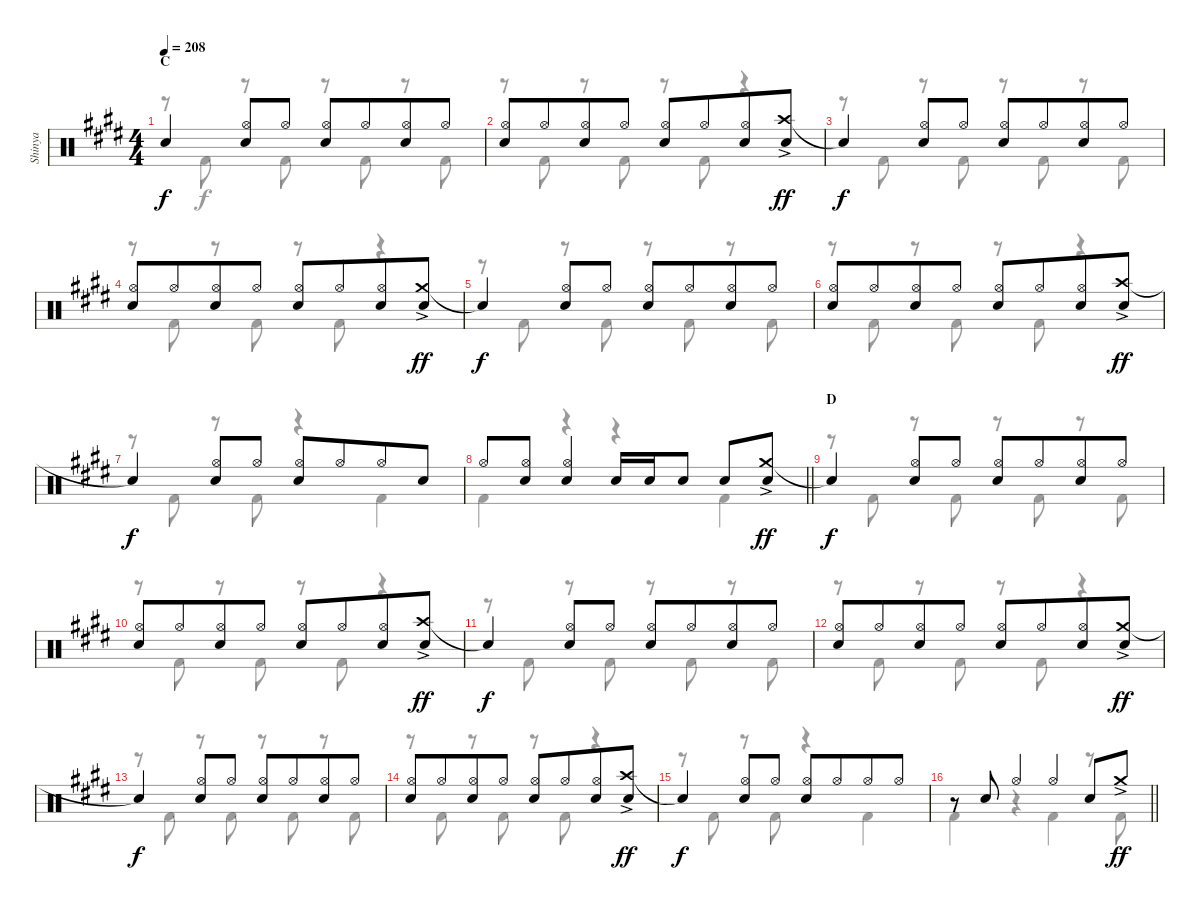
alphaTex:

\track ("Shinya" "Shinya") {instrument percussion}
\staff {score}
\articulation defaults
\voice
\ts (4 4)
\section ("" "C")
\tempo 208
\clef neutral
\ks c#minor "Snare (hit)"{t}.4{dy f}
("Hi-Hat (open)" "Snare (hit) 2").8 "Hi-Hat (open)".8 ("Hi-Hat (open)" "Snare (hit) 2").8 "Hi-Hat (open)".8{beam merge} ("Hi-Hat (open)" "Snare (hit) 2").8 "Hi-Hat (open)".8 |
("Hi-Hat (open)" "Snare (hit) 2").8 "Hi-Hat (open)".8{beam merge} ("Hi-Hat (open)" "Snare (hit) 2").8 "Hi-Hat (open)".8 ("Hi-Hat (open)" "Snare (hit) 2").8 "Hi-Hat (open)".8{beam merge} ("Hi-Hat (open)" "Snare (hit) 2").8 ("Crash high (hit)"{ac} "Snare (hit) 2").8{dy ff} |
"Snare (hit)"{t}.4{dy f} ("Hi-Hat (open)" "Snare (hit) 2").8 "Hi-Hat (open)".8 ("Hi-Hat (open)" "Snare (hit) 2").8 "Hi-Hat (open)".8{beam merge} ("Hi-Hat (open)" "Snare (hit) 2").8 "Hi-Hat (open)".8 |
("Hi-Hat (open)" "Snare (hit) 2").8 "Hi-Hat (open)".8{beam merge} ("Hi-Hat (open)" "Snare (hit) 2").8 "Hi-Hat (open)".8 ("Hi-Hat (open)" "Snare (hit) 2").8 "Hi-Hat (open)".8{beam merge} ("Hi-Hat (open)" "Snare (hit) 2").8 ("Crash medium (hit)"{ac} "Snare (hit) 2").8{dy ff} |
"Snare (hit)"{t}.4{dy f} ("Hi-Hat (open)" "Snare (hit) 2").8 "Hi-Hat (open)".8 ("Hi-Hat (open)" "Snare (hit) 2").8 "Hi-Hat (open)".8{beam merge} ("Hi-Hat (open)" "Snare (hit) 2").8 "Hi-Hat (open)".8 |
("Hi-Hat (open)" "Snare (hit) 2").8 "Hi-Hat (open)".8{beam merge} ("Hi-Hat (open)" "Snare (hit) 2").8 "Hi-Hat (open)".8 ("Hi-Hat (open)" "Snare (hit) 2").8 "Hi-Hat (open)".8{beam merge} ("Hi-Hat (open)" "Snare (hit) 2").8 ("Crash high (hit)"{ac} "Snare (hit) 2").8{dy ff} |
"Snare (hit)"{t}.4{dy f} ("Hi-Hat (open)" "Snare (hit) 2").8 "Hi-Hat (open)".8 ("Hi-Hat (open)" "Snare (hit) 2").8 "Hi-Hat (open)".8{beam merge} "Hi-Hat (open)".8 "Snare (hit) 2".8 |
\barLineRight lightlight "Hi-Hat (open)".8
("Hi-Hat (open)" "Snare (hit) 2").8 ("Hi-Hat (open)" "Snare (hit) 2").4 "Snare (hit) 2".16 "Snare (hit) 2".16 "Snare (hit) 2".8 "Snare (hit) 2".8 ("Crash medium (hit)"{ac} "Snare (hit) 2").8{dy ff} |
\section ("" "D")
"Snare (hit)"{t}.4{dy f} ("Hi-Hat (open)" "Snare (hit) 2").8 "Hi-Hat (open)".8 ("Hi-Hat (open)" "Snare (hit) 2").8 "Hi-Hat (open)".8{beam merge} ("Hi-Hat (open)" "Snare (hit) 2").8 "Hi-Hat (open)".8 |
("Hi-Hat (open)" "Snare (hit) 2").8 "Hi-Hat (open)".8{beam merge} ("Hi-Hat (open)" "Snare (hit) 2").8 "Hi-Hat (open)".8 ("Hi-Hat (open)" "Snare (hit) 2").8 "Hi-Hat (open)".8{beam merge} ("Hi-Hat (open)" "Snare (hit) 2").8 ("Crash high (hit)"{ac} "Snare (hit) 2").8{dy ff} |
"Snare (hit)"{t}.4{dy f} ("Hi-Hat (open)" "Snare (hit) 2").8 "Hi-Hat (open)".8 ("Hi-Hat (open)" "Snare (hit) 2").8 "Hi-Hat (open)".8{beam merge} ("Hi-Hat (open)" "Snare (hit) 2").8 "Hi-Hat (open)".8 |
("Hi-Hat (open)" "Snare (hit) 2").8 "Hi-Hat (open)".8{beam merge} ("Hi-Hat (open)" "Snare (hit) 2").8 "Hi-Hat (open)".8 ("Hi-Hat (open)" "Snare (hit) 2").8 "Hi-Hat (open)".8{beam merge} ("Hi-Hat (open)" "Snare (hit) 2").8 ("Crash medium (hit)"{ac} "Snare (hit) 2").8{dy ff} |
"Snare (hit)"{t}.4{dy f} ("Hi-Hat (open)" "Snare (hit) 2").8 "Hi-Hat (open)".8 ("Hi-Hat (open)" "Snare (hit) 2").8 "Hi-Hat (open)".8{beam merge} ("Hi-Hat (open)" "Snare (hit) 2").8 "Hi-Hat (open)".8 |
("Hi-Hat (open)" "Snare (hit) 2").8 "Hi-Hat (open)".8{beam merge} ("Hi-Hat (open)" "Snare (hit) 2").8 "Hi-Hat (open)".8 ("Hi-Hat (open)" "Snare (hit) 2").8 "Hi-Hat (open)".8{beam merge} ("Hi-Hat (open)" "Snare (hit) 2").8 ("Crash high (hit)"{ac} "Snare (hit) 2").8{dy ff} |
"Snare (hit)"{t}.4{dy f} ("Hi-Hat (open)" "Snare (hit) 2").8 "Hi-Hat (open)".8 ("Hi-Hat (open)" "Snare (hit) 2").8 "Hi-Hat (open)".8{beam merge} "Hi-Hat (open)".8 "Hi-Hat (open)".8 |
\barLineRight lightlight
r.8 "Snare (hit) 2".8 "Hi-Hat (open)".4 "Hi-Hat (open)".4 "Snare (hit) 2".8 "Crash medium (hit)"{ac}.8{dy ff}
\voice
\clef neutral
\ottava regular
\simile none
\ks c#minor
r.8{dy f} "Kick (hit) 2".8 r.8 "Kick (hit) 2".8 r.8 "Kick (hit) 2".8 r.8 "Kick (hit) 2".8 |
r.8 "Kick (hit) 2".8 r.8 "Kick (hit) 2".8 r.8 "Kick (hit) 2".8 r.4 |
r.8 "Kick (hit) 2".8 r.8 "Kick (hit) 2".8 r.8 "Kick (hit) 2".8 r.8 "Kick (hit) 2".8 |
r.8 "Kick (hit) 2".8 r.8 "Kick (hit) 2".8 r.8 "Kick (hit) 2".8 r.4 |
r.8 "Kick (hit) 2".8 r.8 "Kick (hit) 2".8 r.8 "Kick (hit) 2".8 r.8 "Kick (hit) 2".8 |
r.8 "Kick (hit) 2".8 r.8 "Kick (hit) 2".8 r.8 "Kick (hit) 2".8 r.4 |
r.8 "Kick (hit) 2".8 r.8 "Kick (hit) 2".8 r.4 "Kick (hit) 2".4 |
\barLineRight lightlight "Kick (hit) 2".4
r.4 r.4 "Kick (hit) 2".4 |
r.8 "Kick (hit) 2".8 r.8 "Kick (hit) 2".8 r.8 "Kick (hit) 2".8 r.8 "Kick (hit) 2".8 |
r.8 "Kick (hit) 2".8 r.8 "Kick (hit) 2".8 r.8 "Kick (hit) 2".8 r.4 |
r.8 "Kick (hit) 2".8 r.8 "Kick (hit) 2".8 r.8 "Kick (hit) 2".8 r.8 "Kick (hit) 2".8 |
r.8 "Kick (hit) 2".8 r.8 "Kick (hit) 2".8 r.8 "Kick (hit) 2".8 r.4 |
r.8 "Kick (hit) 2".8 r.8 "Kick (hit) 2".8 r.8 "Kick (hit) 2".8 r.8 "Kick (hit) 2".8 |
r.8 "Kick (hit) 2".8 r.8 "Kick (hit) 2".8 r.8 "Kick (hit) 2".8 r.4 |
r.8 "Kick (hit) 2".8 r.8 "Kick (hit) 2".8 r.4 "Kick (hit) 2".4 |
\barLineRight lightlight "Kick (hit) 2".4
r.4 "Kick (hit) 2".4 r.8 "Kick (hit) 2".8
